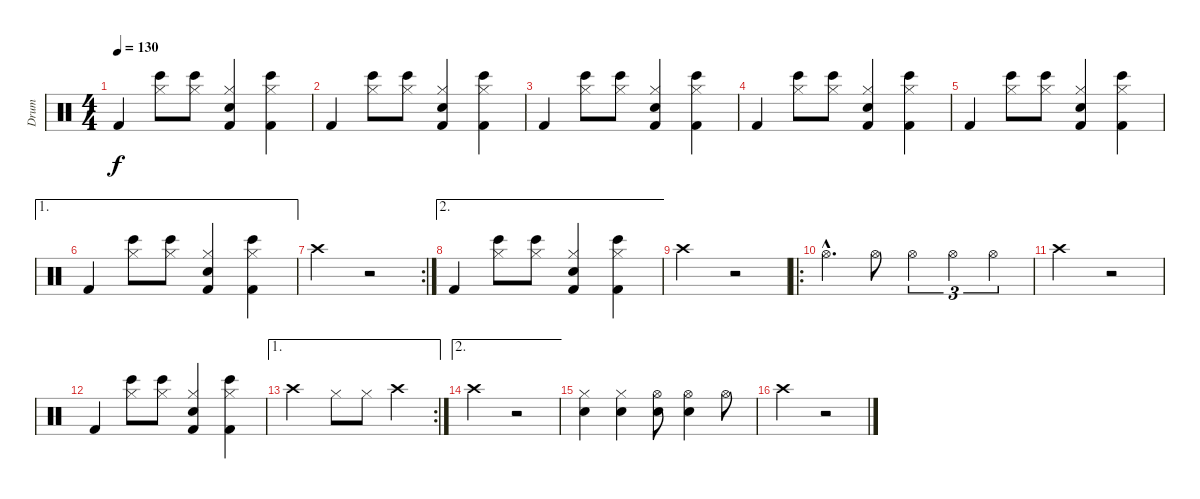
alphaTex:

\track ("Drum" "Drum") {instrument percussion}
\staff {score}
\articulation defaults
\ts (4 4)
\tempo 130
\clef neutral
\ks c "Kick (hit) 2".4{dy f}
("Hi-Hat (closed)" "Bongo High (hit)").8 ("Hi-Hat (closed)" "Bongo High (hit)").8 ("Hi-Hat (closed)" "Snare (hit) 2" "Kick (hit) 2").4 ("Hi-Hat (closed)" "Kick (hit) 2" "Bongo High (hit)").4 |
"Kick (hit) 2".4 ("Hi-Hat (closed)" "Bongo High (hit)").8 ("Hi-Hat (closed)" "Bongo High (hit)").8 ("Hi-Hat (closed)" "Snare (hit) 2" "Kick (hit) 2").4 ("Hi-Hat (closed)" "Kick (hit) 2" "Bongo High (hit)").4 |
"Kick (hit) 2".4 ("Hi-Hat (closed)" "Bongo High (hit)").8 ("Hi-Hat (closed)" "Bongo High (hit)").8 ("Hi-Hat (closed)" "Snare (hit) 2" "Kick (hit) 2").4 ("Hi-Hat (closed)" "Kick (hit) 2" "Bongo High (hit)").4 |
"Kick (hit) 2".4 ("Hi-Hat (closed)" "Bongo High (hit)").8 ("Hi-Hat (closed)" "Bongo High (hit)").8 ("Hi-Hat (closed)" "Snare (hit) 2" "Kick (hit) 2").4 ("Hi-Hat (closed)" "Kick (hit) 2" "Bongo High (hit)").4 |
"Kick (hit) 2".4 ("Hi-Hat (closed)" "Bongo High (hit)").8 ("Hi-Hat (closed)" "Bongo High (hit)").8 ("Hi-Hat (closed)" "Snare (hit) 2" "Kick (hit) 2").4 ("Hi-Hat (closed)" "Kick (hit) 2" "Bongo High (hit)").4 |
\ae 1 "Kick (hit) 2".4
("Hi-Hat (closed)" "Bongo High (hit)").8 ("Hi-Hat (closed)" "Bongo High (hit)").8 ("Hi-Hat (closed)" "Snare (hit) 2" "Kick (hit) 2").4 ("Hi-Hat (closed)" "Kick (hit) 2" "Bongo High (hit)").4 |
\rc 2 "Crash high (hit)".2
r.2 |
\ae 2 "Kick (hit) 2".4
("Hi-Hat (closed)" "Bongo High (hit)").8 ("Hi-Hat (closed)" "Bongo High (hit)").8 ("Hi-Hat (closed)" "Snare (hit) 2" "Kick (hit) 2").4 ("Hi-Hat (closed)" "Kick (hit) 2" "Bongo High (hit)").4 |
"Crash high (hit)".2 r.2 |
\ro "Hi-Hat (open)"{hac}.4{d} "Hi-Hat (open)".8 "Hi-Hat (open)".4{tu (3 2)} "Hi-Hat (open)".4{tu (3 2)} "Hi-Hat (open)".4{tu (3 2)}
|
"Crash high (hit)".2 r.2 |
"Kick (hit) 2".4 ("Hi-Hat (closed)" "Bongo High (hit)").8 ("Hi-Hat (closed)" "Bongo High (hit)").8 ("Hi-Hat (closed)" "Snare (hit) 2" "Kick (hit) 2").4 ("Hi-Hat (closed)" "Kick (hit) 2" "Bongo High (hit)").4 |
\ae 1
\rc 2 "Crash high (hit)".2 "Hi-Hat (closed)".8 "Hi-Hat (closed)".8 "Crash high (hit)".4
|
\ae 2 "Crash high (hit)".2
r.2 |
("Hi-Hat (closed)" "Snare (hit) 2").4 ("Snare (hit) 2" "Hi-Hat (closed)").4 ("Snare (hit) 2" "Hi-Hat (open)").8 ("Snare (hit) 2" "Hi-Hat (open)").4 "Hi-Hat (open)".8 |
"Crash high (hit)".2 r.2
